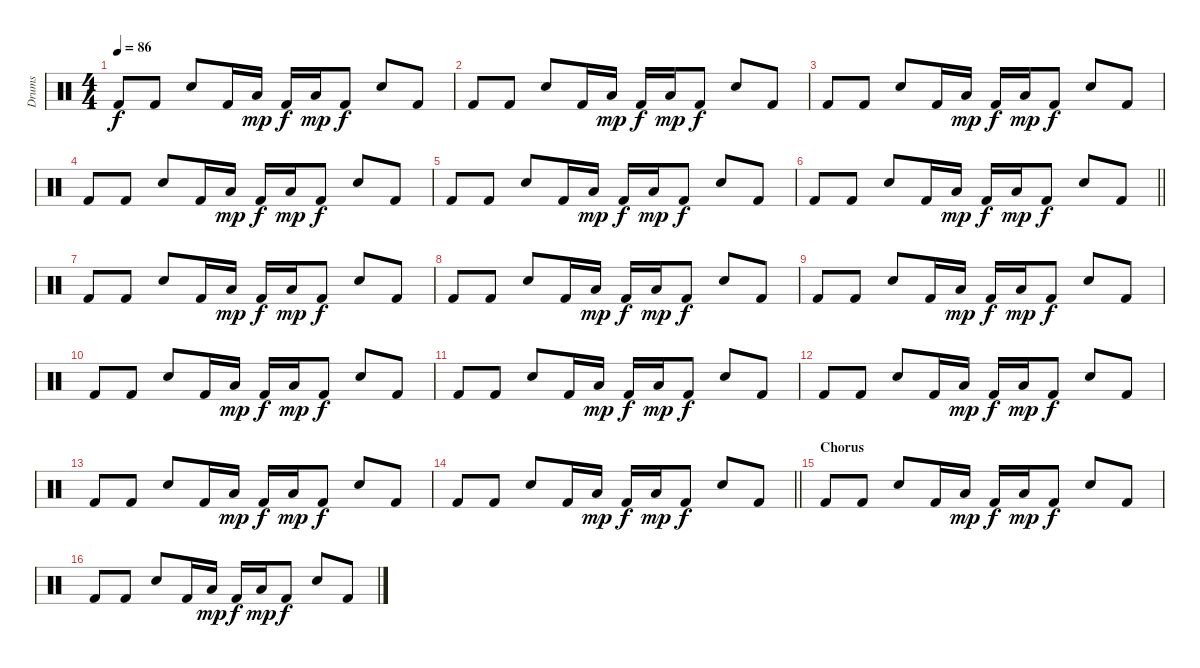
\track ("Drums" "Drums") {instrument percussion}
\staff {score}
\articulation defaults
\ts (4 4)
\tempo 86
\clef neutral
\ks c "Kick (hit) 2".8{dy f} "Kick (hit) 2".8 "Electric Snare (hit)".8 "Kick (hit) 2".16 "Low Floor Tom (hit)".16{dy mp} "Kick (hit) 2".16{dy f} "Low Floor Tom (hit)".16{dy mp} "Kick (hit) 2".8{dy f} "Electric Snare (hit)".8 "Kick (hit) 2".8
|
"Kick (hit) 2".8 "Kick (hit) 2".8 "Electric Snare (hit)".8 "Kick (hit) 2".16 "Low Floor Tom (hit)".16{dy mp} "Kick (hit) 2".16{dy f} "Low Floor Tom (hit)".16{dy mp} "Kick (hit) 2".8{dy f} "Electric Snare (hit)".8 "Kick (hit) 2".8 |
"Kick (hit) 2".8 "Kick (hit) 2".8 "Electric Snare (hit)".8 "Kick (hit) 2".16 "Low Floor Tom (hit)".16{dy mp} "Kick (hit) 2".16{dy f} "Low Floor Tom (hit)".16{dy mp} "Kick (hit) 2".8{dy f} "Electric Snare (hit)".8 "Kick (hit) 2".8 |
"Kick (hit) 2".8 "Kick (hit) 2".8 "Electric Snare (hit)".8 "Kick (hit) 2".16 "Low Floor Tom (hit)".16{dy mp} "Kick (hit) 2".16{dy f} "Low Floor Tom (hit)".16{dy mp} "Kick (hit) 2".8{dy f} "Electric Snare (hit)".8 "Kick (hit) 2".8 |
"Kick (hit) 2".8 "Kick (hit) 2".8 "Electric Snare (hit)".8 "Kick (hit) 2".16 "Low Floor Tom (hit)".16{dy mp} "Kick (hit) 2".16{dy f} "Low Floor Tom (hit)".16{dy mp} "Kick (hit) 2".8{dy f} "Electric Snare (hit)".8 "Kick (hit) 2".8 |
\barLineRight lightlight "Kick (hit) 2".8 "Kick (hit) 2".8 "Electric Snare (hit)".8 "Kick (hit) 2".16 "Low Floor Tom (hit)".16{dy mp} "Kick (hit) 2".16{dy f} "Low Floor Tom (hit)".16{dy mp} "Kick (hit) 2".8{dy f} "Electric Snare (hit)".8 "Kick (hit) 2".8
|
\section ("" "")
"Kick (hit) 2".8 "Kick (hit) 2".8 "Electric Snare (hit)".8 "Kick (hit) 2".16 "Low Floor Tom (hit)".16{dy mp} "Kick (hit) 2".16{dy f} "Low Floor Tom (hit)".16{dy mp} "Kick (hit) 2".8{dy f} "Electric Snare (hit)".8 "Kick (hit) 2".8 |
"Kick (hit) 2".8 "Kick (hit) 2".8 "Electric Snare (hit)".8 "Kick (hit) 2".16 "Low Floor Tom (hit)".16{dy mp} "Kick (hit) 2".16{dy f} "Low Floor Tom (hit)".16{dy mp} "Kick (hit) 2".8{dy f} "Electric Snare (hit)".8 "Kick (hit) 2".8 |
"Kick (hit) 2".8 "Kick (hit) 2".8 "Electric Snare (hit)".8 "Kick (hit) 2".16 "Low Floor Tom (hit)".16{dy mp} "Kick (hit) 2".16{dy f} "Low Floor Tom (hit)".16{dy mp} "Kick (hit) 2".8{dy f} "Electric Snare (hit)".8 "Kick (hit) 2".8 |
"Kick (hit) 2".8 "Kick (hit) 2".8 "Electric Snare (hit)".8 "Kick (hit) 2".16 "Low Floor Tom (hit)".16{dy mp} "Kick (hit) 2".16{dy f} "Low Floor Tom (hit)".16{dy mp} "Kick (hit) 2".8{dy f} "Electric Snare (hit)".8 "Kick (hit) 2".8 |
"Kick (hit) 2".8 "Kick (hit) 2".8 "Electric Snare (hit)".8 "Kick (hit) 2".16 "Low Floor Tom (hit)".16{dy mp} "Kick (hit) 2".16{dy f} "Low Floor Tom (hit)".16{dy mp} "Kick (hit) 2".8{dy f} "Electric Snare (hit)".8 "Kick (hit) 2".8 |
"Kick (hit) 2".8 "Kick (hit) 2".8 "Electric Snare (hit)".8 "Kick (hit) 2".16 "Low Floor Tom (hit)".16{dy mp} "Kick (hit) 2".16{dy f} "Low Floor Tom (hit)".16{dy mp} "Kick (hit) 2".8{dy f} "Electric Snare (hit)".8 "Kick (hit) 2".8 |
"Kick (hit) 2".8 "Kick (hit) 2".8 "Electric Snare (hit)".8 "Kick (hit) 2".16 "Low Floor Tom (hit)".16{dy mp} "Kick (hit) 2".16{dy f} "Low Floor Tom (hit)".16{dy mp} "Kick (hit) 2".8{dy f} "Electric Snare (hit)".8 "Kick (hit) 2".8 |
\barLineRight lightlight "Kick (hit) 2".8 "Kick (hit) 2".8 "Electric Snare (hit)".8 "Kick (hit) 2".16 "Low Floor Tom (hit)".16{dy mp} "Kick (hit) 2".16{dy f} "Low Floor Tom (hit)".16{dy mp} "Kick (hit) 2".8{dy f} "Electric Snare (hit)".8 "Kick (hit) 2".8
|
\section ("" "Chorus")
"Kick (hit) 2".8 "Kick (hit) 2".8 "Electric Snare (hit)".8 "Kick (hit) 2".16 "Low Floor Tom (hit)".16{dy mp} "Kick (hit) 2".16{dy f} "Low Floor Tom (hit)".16{dy mp} "Kick (hit) 2".8{dy f} "Electric Snare (hit)".8 "Kick (hit) 2".8 |
"Kick (hit) 2".8 "Kick (hit) 2".8 "Electric Snare (hit)".8 "Kick (hit) 2".16 "Low Floor Tom (hit)".16{dy mp} "Kick (hit) 2".16{dy f} "Low Floor Tom (hit)".16{dy mp} "Kick (hit) 2".8{dy f} "Electric Snare (hit)".8 "Kick (hit) 2".8
